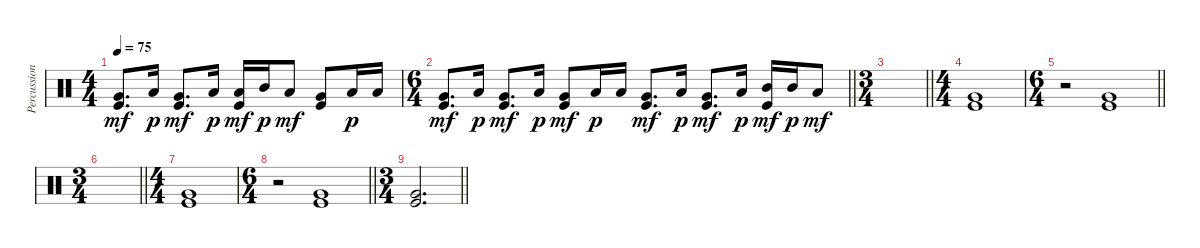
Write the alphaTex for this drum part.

\track ("Percussion" "Percussion") {instrument percussion}
\staff {score}
\articulation defaults
\ts (4 4)
\tempo 75
\clef neutral
\ks c
("Very Low Tom (hit)" "Kick (hit)").8{d dy mf} "Low Tom (hit)".16{dy p} ("Very Low Tom (hit)" "Kick (hit)").8{d dy mf} "Low Tom (hit)".16{dy p} ("Low Tom (hit)" "Kick (hit)").16{dy mf} "Mid Tom (hit)".16{dy p} "Low Tom (hit)".8{dy mf} ("Very Low Tom (hit)" "Kick (hit)").8 "Low Tom (hit)".16{dy p} "Low Tom (hit)".16 |
\ts (6 4)
\barLineRight lightlight
("Very Low Tom (hit)" "Kick (hit)").8{d dy mf} "Low Tom (hit)".16{dy p} ("Very Low Tom (hit)" "Kick (hit)").8{d dy mf} "Low Tom (hit)".16{dy p} ("Very Low Tom (hit)" "Kick (hit)").8{dy mf} "Low Tom (hit)".16{dy p} "Low Tom (hit)".16 ("Very Low Tom (hit)" "Kick (hit)").8{d dy mf} "Low Tom (hit)".16{dy p} ("Very Low Tom (hit)" "Kick (hit)").8{d dy mf} "Low Tom (hit)".16{dy p} ("Mid Tom (hit)" "Kick (hit)").16{dy mf} "Mid Tom (hit)".16{dy p} "Low Tom (hit)".8{dy mf} |
\ts (3 4)
\barLineRight lightlight
|
\ts (4 4)
("Very Low Tom (hit)" "Kick (hit)").1 |
\ts (6 4)
\barLineRight lightlight
r.2 ("Very Low Tom (hit)" "Kick (hit)").1 |
\ts (3 4)
\barLineRight lightlight
|
\ts (4 4)
("Very Low Tom (hit)" "Kick (hit)").1 |
\ts (6 4)
\barLineRight lightlight
r.2 ("Very Low Tom (hit)" "Kick (hit)").1 |
\ts (3 4)
\barLineRight lightlight
("Very Low Tom (hit)" "Kick (hit)").2{d}
